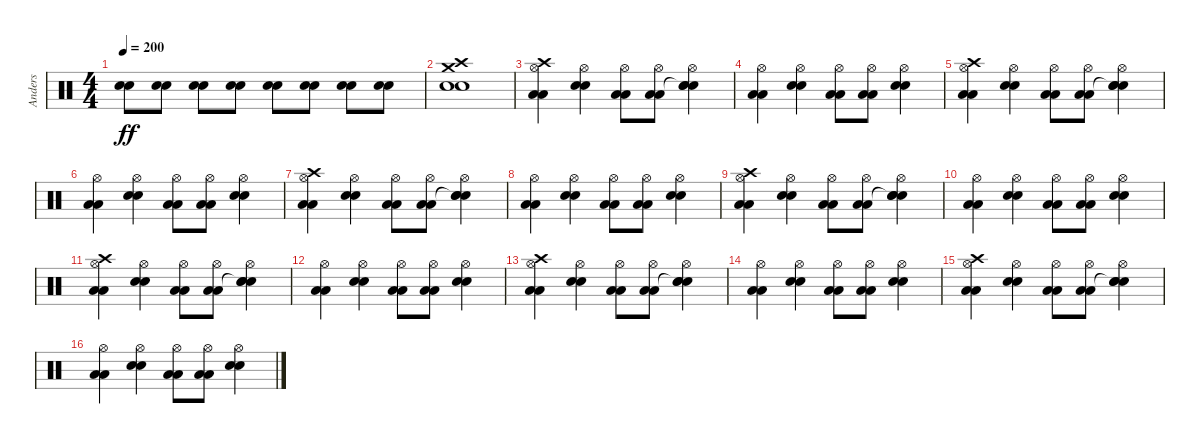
\track ("Anders" "Anders") {instrument percussion}
\staff {score}
\articulation defaults
\ts (4 4)
\tempo 200
\clef neutral
\ks c
("Electric Snare (hit)" "Electric Snare (hit)").8{dy ff} ("Electric Snare (hit)" "Electric Snare (hit)").8 ("Electric Snare (hit)" "Electric Snare (hit)").8 ("Electric Snare (hit)" "Electric Snare (hit)").8 ("Electric Snare (hit)" "Electric Snare (hit)").8 ("Electric Snare (hit)" "Electric Snare (hit)").8 ("Electric Snare (hit)" "Electric Snare (hit)").8 ("Electric Snare (hit)" "Electric Snare (hit)").8 |
("Crash high (hit)" "Crash medium (hit)" "Electric Snare (hit)" "Electric Snare (hit)").1 |
("Hi-Hat (open)" "Crash high (hit)" "Low Floor Tom (hit)" "Low Floor Tom (hit)").4 ("Hi-Hat (open)" "Electric Snare (hit)" "Electric Snare (hit)").4 ("Hi-Hat (open)" "Low Floor Tom (hit)" "Low Floor Tom (hit)").8 ("Hi-Hat (open)" "Low Floor Tom (hit)" "Low Floor Tom (hit)").8 ("Hi-Hat (open)" "Snare (hit)"{t} "Electric Snare (hit)" "Electric Snare (hit)").4 |
("Hi-Hat (open)" "Low Floor Tom (hit)" "Low Floor Tom (hit)").4 ("Hi-Hat (open)" "Electric Snare (hit)" "Electric Snare (hit)").4 ("Hi-Hat (open)" "Low Floor Tom (hit)" "Low Floor Tom (hit)").8 ("Hi-Hat (open)" "Low Floor Tom (hit)" "Low Floor Tom (hit)").8 ("Hi-Hat (open)" "Electric Snare (hit)" "Electric Snare (hit)").4 |
("Hi-Hat (open)" "Crash high (hit)" "Low Floor Tom (hit)" "Low Floor Tom (hit)").4 ("Hi-Hat (open)" "Electric Snare (hit)" "Electric Snare (hit)").4 ("Hi-Hat (open)" "Low Floor Tom (hit)" "Low Floor Tom (hit)").8 ("Hi-Hat (open)" "Low Floor Tom (hit)" "Low Floor Tom (hit)").8 ("Hi-Hat (open)" "Snare (hit)"{t} "Electric Snare (hit)" "Electric Snare (hit)").4 |
("Hi-Hat (open)" "Low Floor Tom (hit)" "Low Floor Tom (hit)").4 ("Hi-Hat (open)" "Electric Snare (hit)" "Electric Snare (hit)").4 ("Hi-Hat (open)" "Low Floor Tom (hit)" "Low Floor Tom (hit)").8 ("Hi-Hat (open)" "Low Floor Tom (hit)" "Low Floor Tom (hit)").8 ("Hi-Hat (open)" "Electric Snare (hit)" "Electric Snare (hit)").4 |
("Hi-Hat (open)" "Crash high (hit)" "Low Floor Tom (hit)" "Low Floor Tom (hit)").4 ("Hi-Hat (open)" "Electric Snare (hit)" "Electric Snare (hit)").4 ("Hi-Hat (open)" "Low Floor Tom (hit)" "Low Floor Tom (hit)").8 ("Hi-Hat (open)" "Low Floor Tom (hit)" "Low Floor Tom (hit)").8 ("Hi-Hat (open)" "Snare (hit)"{t} "Electric Snare (hit)" "Electric Snare (hit)").4 |
("Hi-Hat (open)" "Low Floor Tom (hit)" "Low Floor Tom (hit)").4 ("Hi-Hat (open)" "Electric Snare (hit)" "Electric Snare (hit)").4 ("Hi-Hat (open)" "Low Floor Tom (hit)" "Low Floor Tom (hit)").8 ("Hi-Hat (open)" "Low Floor Tom (hit)" "Low Floor Tom (hit)").8 ("Hi-Hat (open)" "Electric Snare (hit)" "Electric Snare (hit)").4 |
("Hi-Hat (open)" "Crash high (hit)" "Low Floor Tom (hit)" "Low Floor Tom (hit)").4 ("Hi-Hat (open)" "Electric Snare (hit)" "Electric Snare (hit)").4 ("Hi-Hat (open)" "Low Floor Tom (hit)" "Low Floor Tom (hit)").8 ("Hi-Hat (open)" "Low Floor Tom (hit)" "Low Floor Tom (hit)").8 ("Hi-Hat (open)" "Snare (hit)"{t} "Electric Snare (hit)" "Electric Snare (hit)").4 |
("Hi-Hat (open)" "Low Floor Tom (hit)" "Low Floor Tom (hit)").4 ("Hi-Hat (open)" "Electric Snare (hit)" "Electric Snare (hit)").4 ("Hi-Hat (open)" "Low Floor Tom (hit)" "Low Floor Tom (hit)").8 ("Hi-Hat (open)" "Low Floor Tom (hit)" "Low Floor Tom (hit)").8 ("Hi-Hat (open)" "Electric Snare (hit)" "Electric Snare (hit)").4 |
("Hi-Hat (open)" "Crash high (hit)" "Low Floor Tom (hit)" "Low Floor Tom (hit)").4 ("Hi-Hat (open)" "Electric Snare (hit)" "Electric Snare (hit)").4 ("Hi-Hat (open)" "Low Floor Tom (hit)" "Low Floor Tom (hit)").8 ("Hi-Hat (open)" "Low Floor Tom (hit)" "Low Floor Tom (hit)").8 ("Hi-Hat (open)" "Snare (hit)"{t} "Electric Snare (hit)" "Electric Snare (hit)").4 |
("Hi-Hat (open)" "Low Floor Tom (hit)" "Low Floor Tom (hit)").4 ("Hi-Hat (open)" "Electric Snare (hit)" "Electric Snare (hit)").4 ("Hi-Hat (open)" "Low Floor Tom (hit)" "Low Floor Tom (hit)").8 ("Hi-Hat (open)" "Low Floor Tom (hit)" "Low Floor Tom (hit)").8 ("Hi-Hat (open)" "Electric Snare (hit)" "Electric Snare (hit)").4 |
("Hi-Hat (open)" "Crash high (hit)" "Low Floor Tom (hit)" "Low Floor Tom (hit)").4 ("Hi-Hat (open)" "Electric Snare (hit)" "Electric Snare (hit)").4 ("Hi-Hat (open)" "Low Floor Tom (hit)" "Low Floor Tom (hit)").8 ("Hi-Hat (open)" "Low Floor Tom (hit)" "Low Floor Tom (hit)").8 ("Hi-Hat (open)" "Snare (hit)"{t} "Electric Snare (hit)" "Electric Snare (hit)").4 |
("Hi-Hat (open)" "Low Floor Tom (hit)" "Low Floor Tom (hit)").4 ("Hi-Hat (open)" "Electric Snare (hit)" "Electric Snare (hit)").4 ("Hi-Hat (open)" "Low Floor Tom (hit)" "Low Floor Tom (hit)").8 ("Hi-Hat (open)" "Low Floor Tom (hit)" "Low Floor Tom (hit)").8 ("Hi-Hat (open)" "Electric Snare (hit)" "Electric Snare (hit)").4 |
("Hi-Hat (open)" "Crash high (hit)" "Low Floor Tom (hit)" "Low Floor Tom (hit)").4 ("Hi-Hat (open)" "Electric Snare (hit)" "Electric Snare (hit)").4 ("Hi-Hat (open)" "Low Floor Tom (hit)" "Low Floor Tom (hit)").8 ("Hi-Hat (open)" "Low Floor Tom (hit)" "Low Floor Tom (hit)").8 ("Hi-Hat (open)" "Snare (hit)"{t} "Electric Snare (hit)" "Electric Snare (hit)").4 |
("Hi-Hat (open)" "Low Floor Tom (hit)" "Low Floor Tom (hit)").4 ("Hi-Hat (open)" "Electric Snare (hit)" "Electric Snare (hit)").4 ("Hi-Hat (open)" "Low Floor Tom (hit)" "Low Floor Tom (hit)").8 ("Hi-Hat (open)" "Low Floor Tom (hit)" "Low Floor Tom (hit)").8 ("Hi-Hat (open)" "Electric Snare (hit)" "Electric Snare (hit)").4
